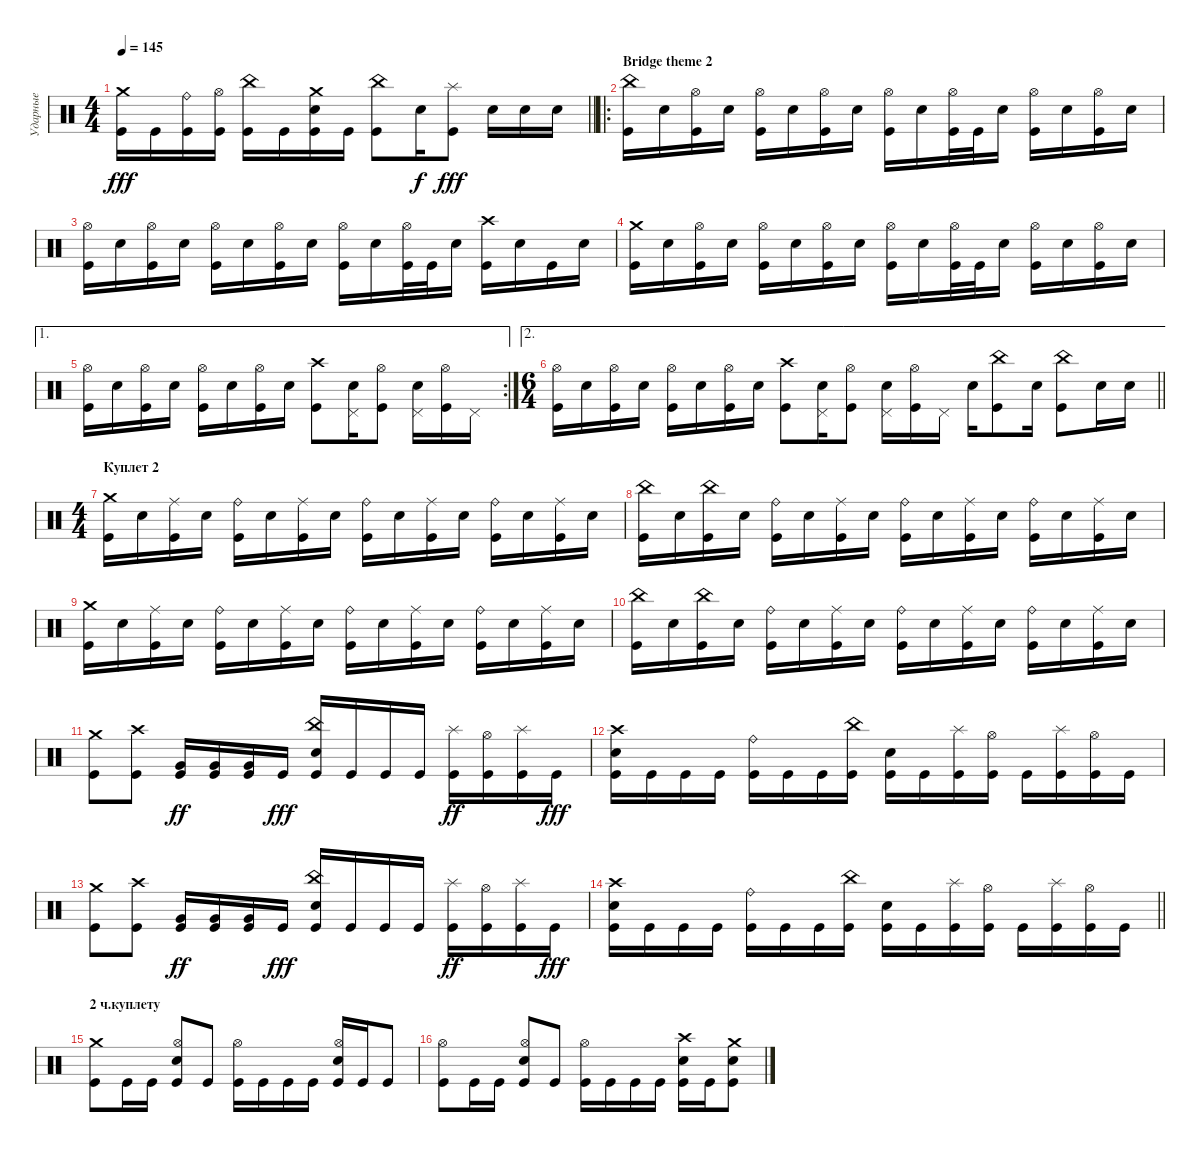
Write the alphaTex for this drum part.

\track ("Ударные" "Ударные") {instrument percussion}
\staff {score}
\articulation defaults
\ts (4 4)
\tempo 145
\clef neutral
\barLineRight lightlight
\ks c
("Crash medium (hit)" "Kick (hit)").16{dy fff} "Kick (hit)".16 ("Kick (hit)" "Ride (bell)").16 ("Kick (hit)" "Hi-Hat (open)").16 ("Kick (hit)" "China (hit)").16 "Kick (hit)".16 ("Kick (hit)" "Electric Snare (hit)" "Crash medium (hit)").16 "Kick (hit)".16 ("China (hit)" "Kick (hit)").8 "Electric Snare (hit)".16{dy f} ("Splash (hit)" "Kick (hit)").8{dy fff} "Electric Snare (hit)".16 "Electric Snare (hit)".16 "Electric Snare (hit)".16 |
\ro
\section ("" "Bridge theme 2")
("China (hit)" "Kick (hit)").16 "Electric Snare (hit)".16 ("Kick (hit)" "Hi-Hat (open)").16 "Electric Snare (hit)".16 ("Kick (hit)" "Hi-Hat (open)").16 "Electric Snare (hit)".16 ("Kick (hit)" "Hi-Hat (open)").16 "Electric Snare (hit)".16 ("Kick (hit)" "Hi-Hat (open)").16 "Electric Snare (hit)".16 ("Kick (hit)" "Hi-Hat (open)").32 "Kick (hit)".32 "Electric Snare (hit)".16 ("Kick (hit)" "Hi-Hat (open)").16 "Electric Snare (hit)".16 ("Kick (hit)" "Hi-Hat (open)").16 "Electric Snare (hit)".16 |
("Hi-Hat (open)" "Kick (hit)").16 "Electric Snare (hit)".16 ("Kick (hit)" "Hi-Hat (open)").16 "Electric Snare (hit)".16 ("Kick (hit)" "Hi-Hat (open)").16 "Electric Snare (hit)".16 ("Kick (hit)" "Hi-Hat (open)").16 "Electric Snare (hit)".16 ("Kick (hit)" "Hi-Hat (open)").16 "Electric Snare (hit)".16 ("Kick (hit)" "Hi-Hat (open)").32 "Kick (hit)".32 "Electric Snare (hit)".16 ("Kick (hit)" "Crash high (hit)").16 "Electric Snare (hit)".16 "Kick (hit)".16 "Electric Snare (hit)".16 |
("Crash medium (hit)" "Kick (hit)").16 "Electric Snare (hit)".16 ("Kick (hit)" "Hi-Hat (open)").16 "Electric Snare (hit)".16 ("Kick (hit)" "Hi-Hat (open)").16 "Electric Snare (hit)".16 ("Kick (hit)" "Hi-Hat (open)").16 "Electric Snare (hit)".16 ("Kick (hit)" "Hi-Hat (open)").16 "Electric Snare (hit)".16 ("Kick (hit)" "Hi-Hat (open)").32 "Kick (hit)".32 "Electric Snare (hit)".16 ("Kick (hit)" "Hi-Hat (open)").16 "Electric Snare (hit)".16 ("Kick (hit)" "Hi-Hat (open)").16 "Electric Snare (hit)".16 |
\ae 1
\rc 2
("Hi-Hat (open)" "Kick (hit)").16 "Electric Snare (hit)".16 ("Kick (hit)" "Hi-Hat (open)").16 "Electric Snare (hit)".16 ("Kick (hit)" "Hi-Hat (open)").16 "Electric Snare (hit)".16 ("Kick (hit)" "Hi-Hat (open)").16 "Electric Snare (hit)".16 ("Kick (hit)" "Crash high (hit)").8 ("Electric Snare (hit)" "Pedal Hi-Hat (hit)").16 ("Hi-Hat (open)" "Kick (hit)").8 ("Electric Snare (hit)" "Pedal Hi-Hat (hit)").16 ("Kick (hit)" "Hi-Hat (open)").16 "Pedal Hi-Hat (hit)".16 |
\ae 2
\ts (6 4)
\barLineRight lightlight
("Hi-Hat (open)" "Kick (hit)").16 "Electric Snare (hit)".16 ("Kick (hit)" "Hi-Hat (open)").16 "Electric Snare (hit)".16 ("Kick (hit)" "Hi-Hat (open)").16 "Electric Snare (hit)".16 ("Kick (hit)" "Hi-Hat (open)").16 "Electric Snare (hit)".16 ("Kick (hit)" "Crash high (hit)").8 ("Electric Snare (hit)" "Pedal Hi-Hat (hit)").16 ("Hi-Hat (open)" "Kick (hit)").8 ("Electric Snare (hit)" "Pedal Hi-Hat (hit)").16 ("Kick (hit)" "Hi-Hat (open)").16 "Pedal Hi-Hat (hit)".16 "Electric Snare (hit)".16 ("China (hit)" "Kick (hit)").8 "Electric Snare (hit)".16 ("China (hit)" "Kick (hit)").8 "Electric Snare (hit)".16 "Electric Snare (hit)".16 |
\ts (4 4)
\section ("" "Куплет 2")
("Kick (hit)" "Crash medium (hit)").16 "Electric Snare (hit)".16 ("Kick (hit)" "Ride (middle)").16 "Electric Snare (hit)".16 ("Kick (hit)" "Ride (bell)").16 "Electric Snare (hit)".16 ("Kick (hit)" "Ride (middle)").16 "Electric Snare (hit)".16 ("Kick (hit)" "Ride (bell)").16 "Electric Snare (hit)".16 ("Kick (hit)" "Ride (middle)").16 "Electric Snare (hit)".16 ("Kick (hit)" "Ride (bell)").16 "Electric Snare (hit)".16 ("Kick (hit)" "Ride (middle)").16 "Electric Snare (hit)".16 |
("Kick (hit)" "China (hit)").16 "Electric Snare (hit)".16 ("Kick (hit)" "China (hit)").16 "Electric Snare (hit)".16 ("Kick (hit)" "Ride (bell)").16 "Electric Snare (hit)".16 ("Kick (hit)" "Ride (middle)").16 "Electric Snare (hit)".16 ("Kick (hit)" "Ride (bell)").16 "Electric Snare (hit)".16 ("Kick (hit)" "Ride (middle)").16 "Electric Snare (hit)".16 ("Kick (hit)" "Ride (bell)").16 "Electric Snare (hit)".16 ("Kick (hit)" "Ride (middle)").16 "Electric Snare (hit)".16 |
("Kick (hit)" "Crash medium (hit)").16 "Electric Snare (hit)".16 ("Kick (hit)" "Ride (middle)").16 "Electric Snare (hit)".16 ("Kick (hit)" "Ride (bell)").16 "Electric Snare (hit)".16 ("Kick (hit)" "Ride (middle)").16 "Electric Snare (hit)".16 ("Kick (hit)" "Ride (bell)").16 "Electric Snare (hit)".16 ("Kick (hit)" "Ride (middle)").16 "Electric Snare (hit)".16 ("Kick (hit)" "Ride (bell)").16 "Electric Snare (hit)".16 ("Kick (hit)" "Ride (middle)").16 "Electric Snare (hit)".16 |
("Kick (hit)" "China (hit)").16 "Electric Snare (hit)".16 ("Kick (hit)" "China (hit)").16 "Electric Snare (hit)".16 ("Kick (hit)" "Ride (bell)").16 "Electric Snare (hit)".16 ("Kick (hit)" "Ride (middle)").16 "Electric Snare (hit)".16 ("Kick (hit)" "Ride (bell)").16 "Electric Snare (hit)".16 ("Kick (hit)" "Ride (middle)").16 "Electric Snare (hit)".16 ("Kick (hit)" "Ride (bell)").16 "Electric Snare (hit)".16 ("Kick (hit)" "Ride (middle)").16 "Electric Snare (hit)".16 |
("Crash medium (hit)" "Kick (hit)").8 ("Crash high (hit)" "Kick (hit)").8 ("Kick (hit)" "Very Low Tom (hit)").16{dy ff} ("Kick (hit)" "Very Low Tom (hit)").16 ("Kick (hit)" "Very Low Tom (hit)").16 "Kick (hit)".16{dy fff} ("Kick (hit)" "Electric Snare (hit)" "China (hit)").16 "Kick (hit)".16 "Kick (hit)".16 "Kick (hit)".16 ("Kick (hit)" "Splash (hit)").16{dy ff} ("Kick (hit)" "Hi-Hat (open)").16 ("Kick (hit)" "Splash (hit)").16 "Kick (hit)".16{dy fff} |
("Kick (hit)" "Electric Snare (hit)" "Crash high (hit)").16 "Kick (hit)".16 "Kick (hit)".16 "Kick (hit)".16 ("Kick (hit)" "Ride (bell)").16 "Kick (hit)".16 "Kick (hit)".16 ("Kick (hit)" "China (hit)").16 ("Kick (hit)" "Electric Snare (hit)").16 "Kick (hit)".16 ("Kick (hit)" "Splash (hit)").16 ("Kick (hit)" "Hi-Hat (open)").16 "Kick (hit)".16 ("Kick (hit)" "Splash (hit)").16 ("Kick (hit)" "Hi-Hat (open)").16 "Kick (hit)".16 |
("Crash medium (hit)" "Kick (hit)").8 ("Crash high (hit)" "Kick (hit)").8 ("Kick (hit)" "Very Low Tom (hit)").16{dy ff} ("Kick (hit)" "Very Low Tom (hit)").16 ("Kick (hit)" "Very Low Tom (hit)").16 "Kick (hit)".16{dy fff} ("Kick (hit)" "Electric Snare (hit)" "China (hit)").16 "Kick (hit)".16 "Kick (hit)".16 "Kick (hit)".16 ("Kick (hit)" "Splash (hit)").16{dy ff} ("Kick (hit)" "Hi-Hat (open)").16 ("Kick (hit)" "Splash (hit)").16 "Kick (hit)".16{dy fff} |
\barLineRight lightlight
("Kick (hit)" "Electric Snare (hit)" "Crash high (hit)").16 "Kick (hit)".16 "Kick (hit)".16 "Kick (hit)".16 ("Kick (hit)" "Ride (bell)").16 "Kick (hit)".16 "Kick (hit)".16 ("Kick (hit)" "China (hit)").16 ("Kick (hit)" "Electric Snare (hit)").16 "Kick (hit)".16 ("Kick (hit)" "Splash (hit)").16 ("Kick (hit)" "Hi-Hat (open)").16 "Kick (hit)".16 ("Kick (hit)" "Splash (hit)").16 ("Kick (hit)" "Hi-Hat (open)").16 "Kick (hit)".16 |
\section ("" "2 ч.куплету")
("Kick (hit)" "Crash medium (hit)").8 "Kick (hit)".16 "Kick (hit)".16 ("Kick (hit)" "Electric Snare (hit)" "Hi-Hat (open)").8 "Kick (hit)".8 ("Kick (hit)" "Hi-Hat (open)").16 "Kick (hit)".16 "Kick (hit)".16 "Kick (hit)".16 ("Kick (hit)" "Electric Snare (hit)" "Hi-Hat (open)").16 "Kick (hit)".16 "Kick (hit)".8 |
("Kick (hit)" "Hi-Hat (open)").8 "Kick (hit)".16 "Kick (hit)".16 ("Kick (hit)" "Electric Snare (hit)" "Hi-Hat (open)").8 "Kick (hit)".8 ("Kick (hit)" "Hi-Hat (open)").16 "Kick (hit)".16 "Kick (hit)".16 "Kick (hit)".16 ("Kick (hit)" "Electric Snare (hit)" "Crash high (hit)").16 "Kick (hit)".16 ("Kick (hit)" "Electric Snare (hit)" "Crash medium (hit)").8
